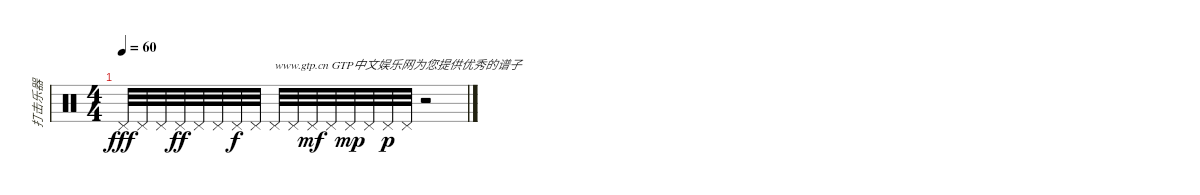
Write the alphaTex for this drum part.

\track ("打击乐器" "打击乐器") {instrument percussion}
\staff {score}
\articulation defaults
\ts (4 4)
\tempo 60
\clef neutral
\ks c "Pedal Hi-Hat (hit)".32{dy fff} "Pedal Hi-Hat (hit)".32 "Pedal Hi-Hat (hit)".32 "Pedal Hi-Hat (hit)".32{dy ff} "Pedal Hi-Hat (hit)".32 "Pedal Hi-Hat (hit)".32 "Pedal Hi-Hat (hit)".32{dy f} "Pedal Hi-Hat (hit)".32 "Pedal Hi-Hat (hit)".32{txt "www.gtp.cn GTP中文娱乐网为您提供优秀的谱子"} "Pedal Hi-Hat (hit)".32 "Pedal Hi-Hat (hit)".32{dy mf} "Pedal Hi-Hat (hit)".32 "Pedal Hi-Hat (hit)".32{dy mp} "Pedal Hi-Hat (hit)".32 "Pedal Hi-Hat (hit)".32{dy p} "Pedal Hi-Hat (hit)".32
r.2
